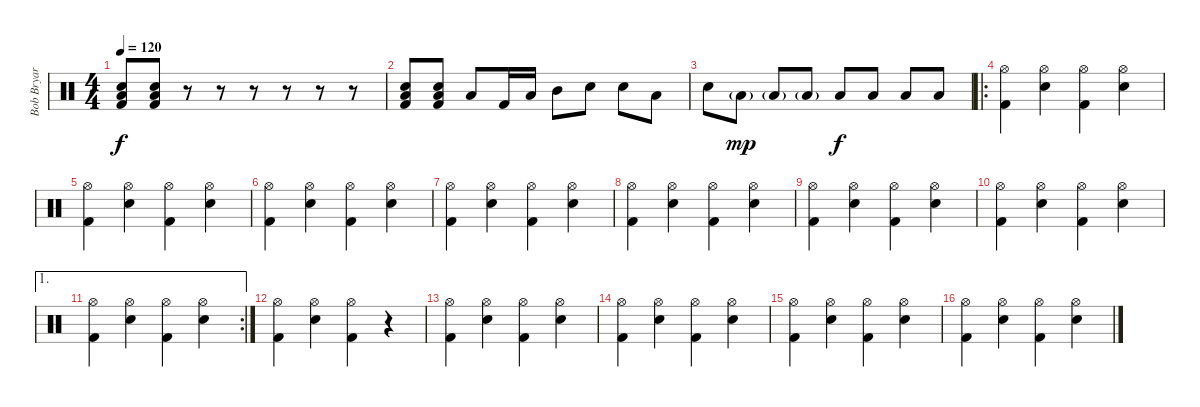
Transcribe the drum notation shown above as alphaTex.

\track ("Bob Bryar [Drums]" "Bob Bryar ") {instrument percussion}
\staff {score}
\articulation defaults
\ts (4 4)
\tempo 120
\clef neutral
\ks c
("Electric Snare (hit)" "Low Tom (hit)" "Kick (hit) 2").8{dy f} ("Electric Snare (hit)" "Low Tom (hit)" "Kick (hit) 2").8 r.8 r.8 r.8 r.8 r.8 r.8 |
("Electric Snare (hit)" "Low Tom (hit)" "Kick (hit) 2").8 ("Electric Snare (hit)" "Low Tom (hit)" "Kick (hit) 2").8 "Low Tom (hit)".8 "Kick (hit) 2".16 "Low Tom (hit)".16 "Mid Tom (hit)".8 "Electric Snare (hit)".8 "Electric Snare (hit)".8 "Low Tom (hit)".8 |
"Electric Snare (hit)".8 "Low Tom (hit)"{g}.8{dy mp} "Low Tom (hit)"{g}.8 "Low Tom (hit)"{g}.8 "Low Tom (hit)".8{dy f} "Low Tom (hit)".8 "Low Tom (hit)".8 "Low Tom (hit)".8 |
\ro
("Hi-Hat (open)" "Kick (hit) 2").4 ("Hi-Hat (open)" "Electric Snare (hit)").4 ("Hi-Hat (open)" "Kick (hit) 2").4 ("Hi-Hat (open)" "Electric Snare (hit)").4 |
("Hi-Hat (open)" "Kick (hit) 2").4 ("Hi-Hat (open)" "Electric Snare (hit)").4 ("Hi-Hat (open)" "Kick (hit) 2").4 ("Hi-Hat (open)" "Electric Snare (hit)").4 |
("Hi-Hat (open)" "Kick (hit) 2").4 ("Hi-Hat (open)" "Electric Snare (hit)").4 ("Hi-Hat (open)" "Kick (hit) 2").4 ("Hi-Hat (open)" "Electric Snare (hit)").4 |
("Hi-Hat (open)" "Kick (hit) 2").4 ("Hi-Hat (open)" "Electric Snare (hit)").4 ("Hi-Hat (open)" "Kick (hit) 2").4 ("Hi-Hat (open)" "Electric Snare (hit)").4 |
("Hi-Hat (open)" "Kick (hit) 2").4 ("Hi-Hat (open)" "Electric Snare (hit)").4 ("Hi-Hat (open)" "Kick (hit) 2").4 ("Hi-Hat (open)" "Electric Snare (hit)").4 |
("Hi-Hat (open)" "Kick (hit) 2").4 ("Hi-Hat (open)" "Electric Snare (hit)").4 ("Hi-Hat (open)" "Kick (hit) 2").4 ("Hi-Hat (open)" "Electric Snare (hit)").4 |
("Hi-Hat (open)" "Kick (hit) 2").4 ("Hi-Hat (open)" "Electric Snare (hit)").4 ("Hi-Hat (open)" "Kick (hit) 2").4 ("Hi-Hat (open)" "Electric Snare (hit)").4 |
\ae 1
\rc 2
("Hi-Hat (open)" "Kick (hit) 2").4 ("Hi-Hat (open)" "Electric Snare (hit)").4 ("Hi-Hat (open)" "Kick (hit) 2").4 ("Hi-Hat (open)" "Electric Snare (hit)").4 |
("Hi-Hat (open)" "Kick (hit) 2").4 ("Hi-Hat (open)" "Electric Snare (hit)").4 ("Hi-Hat (open)" "Kick (hit) 2").4 r.4 |
("Hi-Hat (open)" "Kick (hit) 2").4 ("Hi-Hat (open)" "Electric Snare (hit)").4 ("Hi-Hat (open)" "Kick (hit) 2").4 ("Hi-Hat (open)" "Electric Snare (hit)").4 |
("Hi-Hat (open)" "Kick (hit) 2").4 ("Hi-Hat (open)" "Electric Snare (hit)").4 ("Hi-Hat (open)" "Kick (hit) 2").4 ("Hi-Hat (open)" "Electric Snare (hit)").4 |
("Hi-Hat (open)" "Kick (hit) 2").4 ("Hi-Hat (open)" "Electric Snare (hit)").4 ("Hi-Hat (open)" "Kick (hit) 2").4 ("Hi-Hat (open)" "Electric Snare (hit)").4 |
("Hi-Hat (open)" "Kick (hit) 2").4 ("Hi-Hat (open)" "Electric Snare (hit)").4 ("Hi-Hat (open)" "Kick (hit) 2").4 ("Hi-Hat (open)" "Electric Snare (hit)").4
